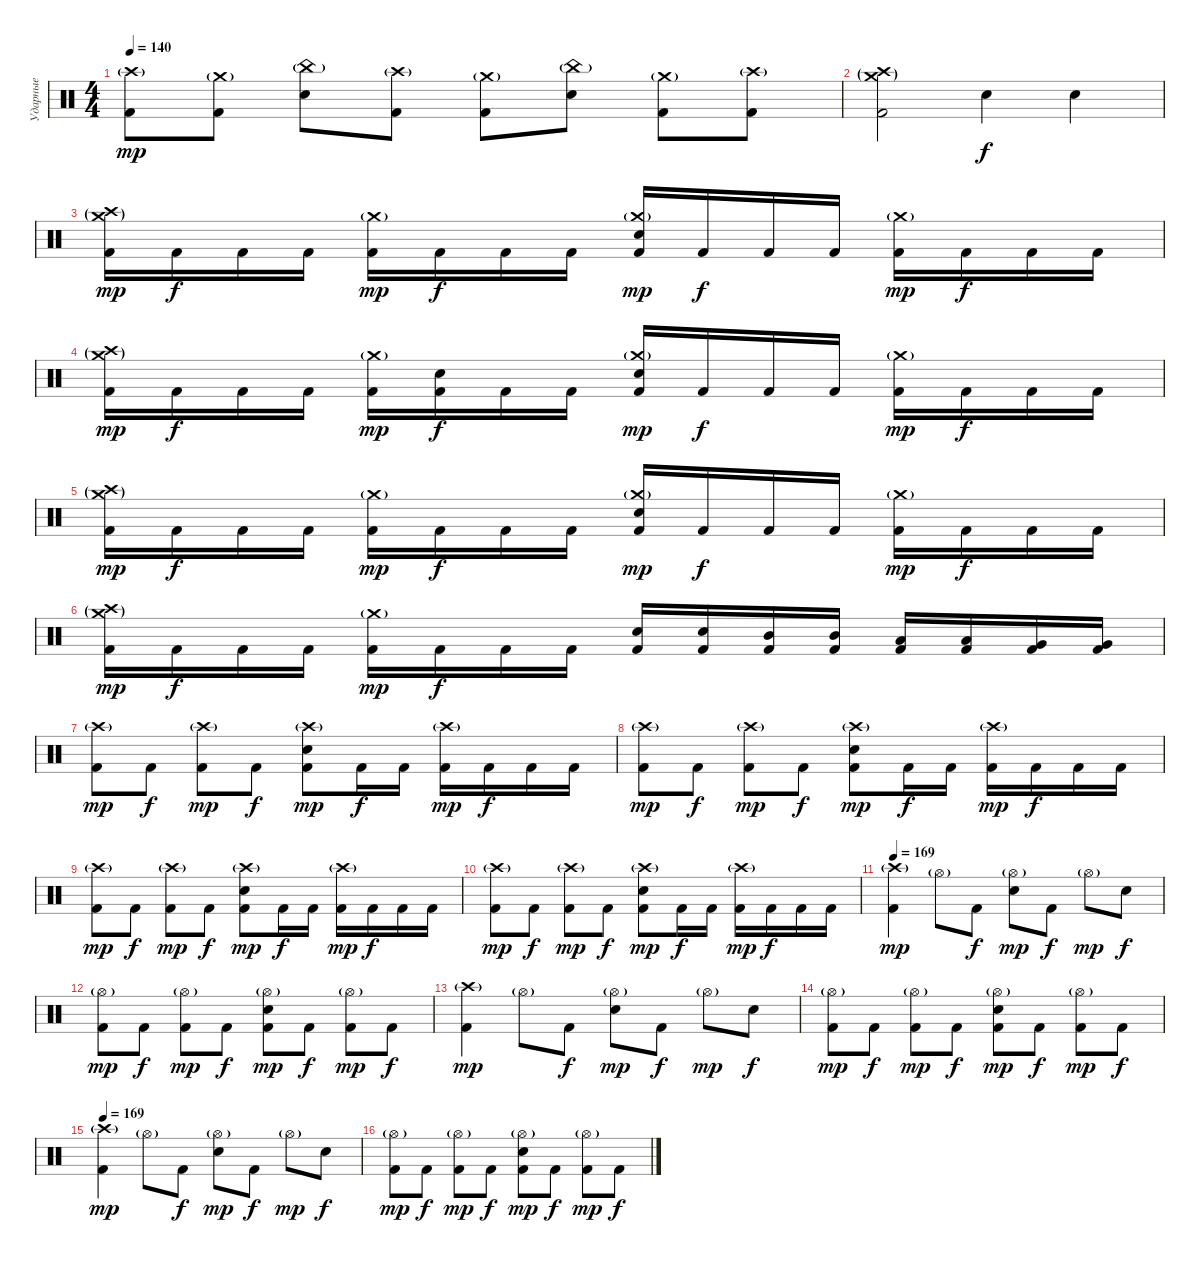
\track ("Ударные" "Ударные") {instrument percussion}
\staff {score}
\articulation defaults
\ts (4 4)
\tempo 140
\clef neutral
\ks c
("Crash high (hit)"{g} "Kick (hit) 2").8{dy mp} ("Crash medium (hit)"{g} "Kick (hit) 2").8 ("China (hit)"{g} "Electric Snare (hit)").8 ("Crash high (hit)"{g} "Kick (hit) 2").8 ("Crash medium (hit)"{g} "Kick (hit) 2").8 ("China (hit)"{g} "Electric Snare (hit)").8 ("Crash medium (hit)"{g} "Kick (hit) 2").8 ("Crash high (hit)"{g} "Kick (hit) 2").8 |
("Crash high (hit)"{g} "Crash medium (hit)"{g} "Kick (hit) 2").2 "Electric Snare (hit)".4{dy f} "Electric Snare (hit)".4 |
("Crash high (hit)"{g} "Crash medium (hit)"{g} "Kick (hit) 2").16{dy mp} "Kick (hit) 2".16{dy f} "Kick (hit) 2".16 "Kick (hit) 2".16 ("Crash medium (hit)"{g} "Kick (hit) 2").16{dy mp} "Kick (hit) 2".16{dy f} "Kick (hit) 2".16 "Kick (hit) 2".16 ("Crash medium (hit)"{g} "Electric Snare (hit)" "Kick (hit) 2").16{dy mp} "Kick (hit) 2".16{dy f} "Kick (hit) 2".16 "Kick (hit) 2".16 ("Crash medium (hit)"{g} "Kick (hit) 2").16{dy mp} "Kick (hit) 2".16{dy f} "Kick (hit) 2".16 "Kick (hit) 2".16 |
("Crash high (hit)"{g} "Crash medium (hit)"{g} "Kick (hit) 2").16{dy mp} "Kick (hit) 2".16{dy f} "Kick (hit) 2".16 "Kick (hit) 2".16 ("Crash medium (hit)"{g} "Kick (hit) 2").16{dy mp} ("Electric Snare (hit)" "Kick (hit) 2").16{dy f} "Kick (hit) 2".16 "Kick (hit) 2".16 ("Crash medium (hit)"{g} "Electric Snare (hit)" "Kick (hit) 2").16{dy mp} "Kick (hit) 2".16{dy f} "Kick (hit) 2".16 "Kick (hit) 2".16 ("Crash medium (hit)"{g} "Kick (hit) 2").16{dy mp} "Kick (hit) 2".16{dy f} "Kick (hit) 2".16 "Kick (hit) 2".16 |
("Crash high (hit)"{g} "Crash medium (hit)"{g} "Kick (hit) 2").16{dy mp} "Kick (hit) 2".16{dy f} "Kick (hit) 2".16 "Kick (hit) 2".16 ("Crash medium (hit)"{g} "Kick (hit) 2").16{dy mp} "Kick (hit) 2".16{dy f} "Kick (hit) 2".16 "Kick (hit) 2".16 ("Crash medium (hit)"{g} "Electric Snare (hit)" "Kick (hit) 2").16{dy mp} "Kick (hit) 2".16{dy f} "Kick (hit) 2".16 "Kick (hit) 2".16 ("Crash medium (hit)"{g} "Kick (hit) 2").16{dy mp} "Kick (hit) 2".16{dy f} "Kick (hit) 2".16 "Kick (hit) 2".16 |
("Crash high (hit)"{g} "Crash medium (hit)"{g} "Kick (hit) 2").16{dy mp} "Kick (hit) 2".16{dy f} "Kick (hit) 2".16 "Kick (hit) 2".16 ("Crash medium (hit)"{g} "Kick (hit) 2").16{dy mp} "Kick (hit) 2".16{dy f} "Kick (hit) 2".16 "Kick (hit) 2".16 ("Electric Snare (hit)" "Kick (hit) 2").16 ("Electric Snare (hit)" "Kick (hit) 2").16 ("Mid Tom (hit)" "Kick (hit) 2").16 ("Mid Tom (hit)" "Kick (hit) 2").16 ("Low Tom (hit)" "Kick (hit) 2").16 ("Low Tom (hit)" "Kick (hit) 2").16 ("Very Low Tom (hit)" "Kick (hit) 2").16 ("Very Low Tom (hit)" "Kick (hit) 2").16 |
("Crash high (hit)"{g} "Kick (hit) 2").8{dy mp} "Kick (hit) 2".8{dy f} ("Crash high (hit)"{g} "Kick (hit) 2").8{dy mp} "Kick (hit) 2".8{dy f} ("Crash high (hit)"{g} "Electric Snare (hit)" "Kick (hit) 2").8{dy mp} "Kick (hit) 2".16{dy f} "Kick (hit) 2".16 ("Crash high (hit)"{g} "Kick (hit) 2").16{dy mp} "Kick (hit) 2".16{dy f} "Kick (hit) 2".16 "Kick (hit) 2".16 |
("Crash high (hit)"{g} "Kick (hit) 2").8{dy mp} "Kick (hit) 2".8{dy f} ("Crash high (hit)"{g} "Kick (hit) 2").8{dy mp} "Kick (hit) 2".8{dy f} ("Crash high (hit)"{g} "Electric Snare (hit)" "Kick (hit) 2").8{dy mp} "Kick (hit) 2".16{dy f} "Kick (hit) 2".16 ("Crash high (hit)"{g} "Kick (hit) 2").16{dy mp} "Kick (hit) 2".16{dy f} "Kick (hit) 2".16 "Kick (hit) 2".16 |
("Crash high (hit)"{g} "Kick (hit) 2").8{dy mp} "Kick (hit) 2".8{dy f} ("Crash high (hit)"{g} "Kick (hit) 2").8{dy mp} "Kick (hit) 2".8{dy f} ("Crash high (hit)"{g} "Electric Snare (hit)" "Kick (hit) 2").8{dy mp} "Kick (hit) 2".16{dy f} "Kick (hit) 2".16 ("Crash high (hit)"{g} "Kick (hit) 2").16{dy mp} "Kick (hit) 2".16{dy f} "Kick (hit) 2".16 "Kick (hit) 2".16 |
("Crash high (hit)"{g} "Kick (hit) 2").8{dy mp} "Kick (hit) 2".8{dy f} ("Crash high (hit)"{g} "Kick (hit) 2").8{dy mp} "Kick (hit) 2".8{dy f} ("Crash high (hit)"{g} "Electric Snare (hit)" "Kick (hit) 2").8{dy mp} "Kick (hit) 2".16{dy f} "Kick (hit) 2".16 ("Crash high (hit)"{g} "Kick (hit) 2").16{dy mp} "Kick (hit) 2".16{dy f} "Kick (hit) 2".16 "Kick (hit) 2".16 |
\tempo 169
("Crash high (hit)"{g} "Kick (hit) 2").4{dy mp} "Hi-Hat (open)"{g}.8 "Kick (hit) 2".8{dy f} ("Hi-Hat (open)"{g} "Electric Snare (hit)").8{dy mp} "Kick (hit) 2".8{dy f} "Hi-Hat (open)"{g}.8{dy mp} "Electric Snare (hit)".8{dy f} |
("Hi-Hat (open)"{g} "Kick (hit) 2").8{dy mp} "Kick (hit) 2".8{dy f} ("Hi-Hat (open)"{g} "Kick (hit) 2").8{dy mp} "Kick (hit) 2".8{dy f} ("Hi-Hat (open)"{g} "Electric Snare (hit)" "Kick (hit) 2").8{dy mp} "Kick (hit) 2".8{dy f} ("Hi-Hat (open)"{g} "Kick (hit) 2").8{dy mp} "Kick (hit) 2".8{dy f} |
("Crash high (hit)"{g} "Kick (hit) 2").4{dy mp} "Hi-Hat (open)"{g}.8 "Kick (hit) 2".8{dy f} ("Hi-Hat (open)"{g} "Electric Snare (hit)").8{dy mp} "Kick (hit) 2".8{dy f} "Hi-Hat (open)"{g}.8{dy mp} "Electric Snare (hit)".8{dy f} |
("Hi-Hat (open)"{g} "Kick (hit) 2").8{dy mp} "Kick (hit) 2".8{dy f} ("Hi-Hat (open)"{g} "Kick (hit) 2").8{dy mp} "Kick (hit) 2".8{dy f} ("Hi-Hat (open)"{g} "Electric Snare (hit)" "Kick (hit) 2").8{dy mp} "Kick (hit) 2".8{dy f} ("Hi-Hat (open)"{g} "Kick (hit) 2").8{dy mp} "Kick (hit) 2".8{dy f} |
\tempo 169
("Crash high (hit)"{g} "Kick (hit) 2").4{dy mp} "Hi-Hat (open)"{g}.8 "Kick (hit) 2".8{dy f} ("Hi-Hat (open)"{g} "Electric Snare (hit)").8{dy mp} "Kick (hit) 2".8{dy f} "Hi-Hat (open)"{g}.8{dy mp} "Electric Snare (hit)".8{dy f} |
("Hi-Hat (open)"{g} "Kick (hit) 2").8{dy mp} "Kick (hit) 2".8{dy f} ("Hi-Hat (open)"{g} "Kick (hit) 2").8{dy mp} "Kick (hit) 2".8{dy f} ("Hi-Hat (open)"{g} "Electric Snare (hit)" "Kick (hit) 2").8{dy mp} "Kick (hit) 2".8{dy f} ("Hi-Hat (open)"{g} "Kick (hit) 2").8{dy mp} "Kick (hit) 2".8{dy f}
